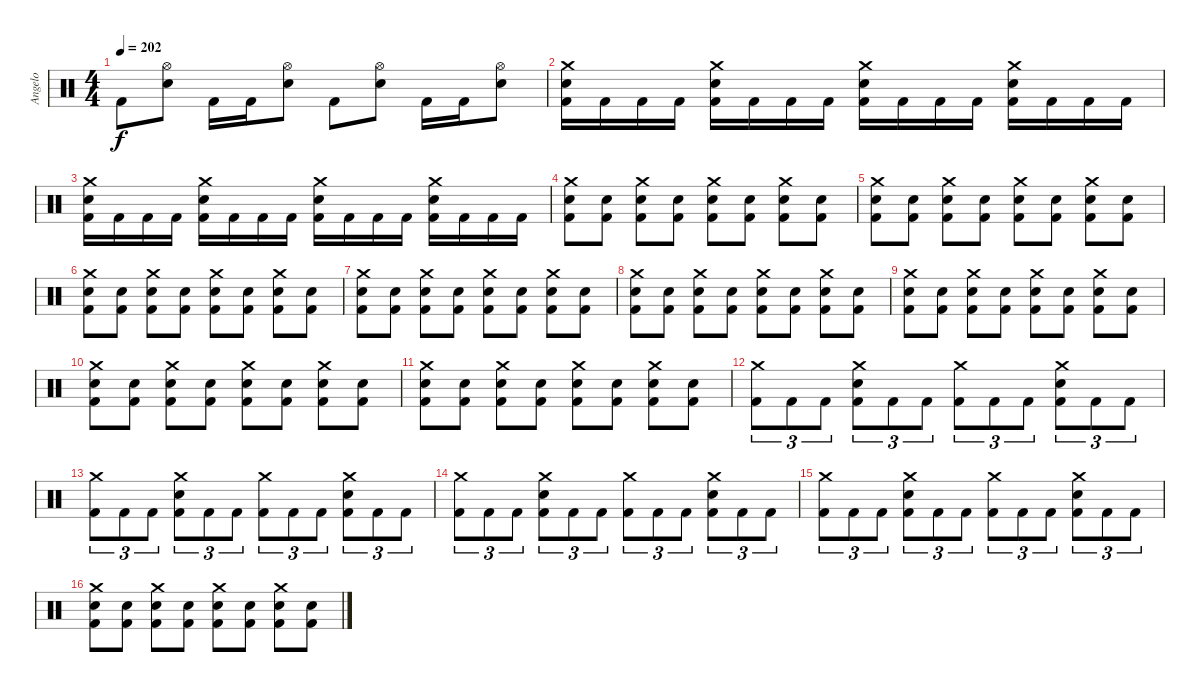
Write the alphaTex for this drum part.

\track ("Angelo" "Angelo") {instrument percussion}
\staff {score}
\articulation defaults
\ts (4 4)
\tempo 202
\clef neutral
\ks c "Kick (hit) 2".8{dy f}
("Hi-Hat (open)" "Electric Snare (hit)").8 "Kick (hit) 2".16 "Kick (hit) 2".16 ("Hi-Hat (open)" "Electric Snare (hit)").8 "Kick (hit) 2".8 ("Hi-Hat (open)" "Electric Snare (hit)").8 "Kick (hit) 2".16 "Kick (hit) 2".16 ("Hi-Hat (open)" "Electric Snare (hit)").8 |
("Crash medium (hit)" "Electric Snare (hit)" "Kick (hit) 2").16 "Kick (hit) 2".16 "Kick (hit) 2".16 "Kick (hit) 2".16 ("Crash medium (hit)" "Electric Snare (hit)" "Kick (hit) 2").16 "Kick (hit) 2".16 "Kick (hit) 2".16 "Kick (hit) 2".16 ("Crash medium (hit)" "Electric Snare (hit)" "Kick (hit) 2").16 "Kick (hit) 2".16 "Kick (hit) 2".16 "Kick (hit) 2".16 ("Crash medium (hit)" "Electric Snare (hit)" "Kick (hit) 2").16 "Kick (hit) 2".16 "Kick (hit) 2".16 "Kick (hit) 2".16 |
("Crash medium (hit)" "Electric Snare (hit)" "Kick (hit) 2").16 "Kick (hit) 2".16 "Kick (hit) 2".16 "Kick (hit) 2".16 ("Crash medium (hit)" "Electric Snare (hit)" "Kick (hit) 2").16 "Kick (hit) 2".16 "Kick (hit) 2".16 "Kick (hit) 2".16 ("Crash medium (hit)" "Electric Snare (hit)" "Kick (hit) 2").16 "Kick (hit) 2".16 "Kick (hit) 2".16 "Kick (hit) 2".16 ("Crash medium (hit)" "Electric Snare (hit)" "Kick (hit) 2").16 "Kick (hit) 2".16 "Kick (hit) 2".16 "Kick (hit) 2".16 |
("Crash medium (hit)" "Electric Snare (hit)" "Kick (hit) 2").8 ("Electric Snare (hit)" "Kick (hit) 2").8 ("Crash medium (hit)" "Electric Snare (hit)" "Kick (hit) 2").8 ("Electric Snare (hit)" "Kick (hit) 2").8 ("Crash medium (hit)" "Electric Snare (hit)" "Kick (hit) 2").8 ("Electric Snare (hit)" "Kick (hit) 2").8 ("Crash medium (hit)" "Electric Snare (hit)" "Kick (hit) 2").8 ("Electric Snare (hit)" "Kick (hit) 2").8 |
("Crash medium (hit)" "Electric Snare (hit)" "Kick (hit) 2").8 ("Electric Snare (hit)" "Kick (hit) 2").8 ("Crash medium (hit)" "Electric Snare (hit)" "Kick (hit) 2").8 ("Electric Snare (hit)" "Kick (hit) 2").8 ("Crash medium (hit)" "Electric Snare (hit)" "Kick (hit) 2").8 ("Electric Snare (hit)" "Kick (hit) 2").8 ("Crash medium (hit)" "Electric Snare (hit)" "Kick (hit) 2").8 ("Electric Snare (hit)" "Kick (hit) 2").8 |
("Crash medium (hit)" "Electric Snare (hit)" "Kick (hit) 2").8 ("Electric Snare (hit)" "Kick (hit) 2").8 ("Crash medium (hit)" "Electric Snare (hit)" "Kick (hit) 2").8 ("Electric Snare (hit)" "Kick (hit) 2").8 ("Crash medium (hit)" "Electric Snare (hit)" "Kick (hit) 2").8 ("Electric Snare (hit)" "Kick (hit) 2").8 ("Crash medium (hit)" "Electric Snare (hit)" "Kick (hit) 2").8 ("Electric Snare (hit)" "Kick (hit) 2").8 |
("Crash medium (hit)" "Electric Snare (hit)" "Kick (hit) 2").8 ("Electric Snare (hit)" "Kick (hit) 2").8 ("Crash medium (hit)" "Electric Snare (hit)" "Kick (hit) 2").8 ("Electric Snare (hit)" "Kick (hit) 2").8 ("Crash medium (hit)" "Electric Snare (hit)" "Kick (hit) 2").8 ("Electric Snare (hit)" "Kick (hit) 2").8 ("Crash medium (hit)" "Electric Snare (hit)" "Kick (hit) 2").8 ("Electric Snare (hit)" "Kick (hit) 2").8 |
("Crash medium (hit)" "Electric Snare (hit)" "Kick (hit) 2").8 ("Electric Snare (hit)" "Kick (hit) 2").8 ("Crash medium (hit)" "Electric Snare (hit)" "Kick (hit) 2").8 ("Electric Snare (hit)" "Kick (hit) 2").8 ("Crash medium (hit)" "Electric Snare (hit)" "Kick (hit) 2").8 ("Electric Snare (hit)" "Kick (hit) 2").8 ("Crash medium (hit)" "Electric Snare (hit)" "Kick (hit) 2").8 ("Electric Snare (hit)" "Kick (hit) 2").8 |
("Crash medium (hit)" "Electric Snare (hit)" "Kick (hit) 2").8 ("Electric Snare (hit)" "Kick (hit) 2").8 ("Crash medium (hit)" "Electric Snare (hit)" "Kick (hit) 2").8 ("Electric Snare (hit)" "Kick (hit) 2").8 ("Crash medium (hit)" "Electric Snare (hit)" "Kick (hit) 2").8 ("Electric Snare (hit)" "Kick (hit) 2").8 ("Crash medium (hit)" "Electric Snare (hit)" "Kick (hit) 2").8 ("Electric Snare (hit)" "Kick (hit) 2").8 |
("Crash medium (hit)" "Electric Snare (hit)" "Kick (hit) 2").8 ("Electric Snare (hit)" "Kick (hit) 2").8 ("Crash medium (hit)" "Electric Snare (hit)" "Kick (hit) 2").8 ("Electric Snare (hit)" "Kick (hit) 2").8 ("Crash medium (hit)" "Electric Snare (hit)" "Kick (hit) 2").8 ("Electric Snare (hit)" "Kick (hit) 2").8 ("Crash medium (hit)" "Electric Snare (hit)" "Kick (hit) 2").8 ("Electric Snare (hit)" "Kick (hit) 2").8 |
("Crash medium (hit)" "Electric Snare (hit)" "Kick (hit) 2").8 ("Electric Snare (hit)" "Kick (hit) 2").8 ("Crash medium (hit)" "Electric Snare (hit)" "Kick (hit) 2").8 ("Electric Snare (hit)" "Kick (hit) 2").8 ("Crash medium (hit)" "Electric Snare (hit)" "Kick (hit) 2").8 ("Electric Snare (hit)" "Kick (hit) 2").8 ("Crash medium (hit)" "Electric Snare (hit)" "Kick (hit) 2").8 ("Electric Snare (hit)" "Kick (hit) 2").8 |
("Crash medium (hit)" "Kick (hit) 2").8{tu (3 2)} "Kick (hit) 2".8{tu (3 2)} "Kick (hit) 2".8{tu (3 2)} ("Crash medium (hit)" "Electric Snare (hit)" "Kick (hit) 2").8{tu (3 2)} "Kick (hit) 2".8{tu (3 2)} "Kick (hit) 2".8{tu (3 2)} ("Crash medium (hit)" "Kick (hit) 2").8{tu (3 2)} "Kick (hit) 2".8{tu (3 2)} "Kick (hit) 2".8{tu (3 2)} ("Crash medium (hit)" "Electric Snare (hit)" "Kick (hit) 2").8{tu (3 2)} "Kick (hit) 2".8{tu (3 2)} "Kick (hit) 2".8{tu (3 2)} |
("Crash medium (hit)" "Kick (hit) 2").8{tu (3 2)} "Kick (hit) 2".8{tu (3 2)} "Kick (hit) 2".8{tu (3 2)} ("Crash medium (hit)" "Electric Snare (hit)" "Kick (hit) 2").8{tu (3 2)} "Kick (hit) 2".8{tu (3 2)} "Kick (hit) 2".8{tu (3 2)} ("Crash medium (hit)" "Kick (hit) 2").8{tu (3 2)} "Kick (hit) 2".8{tu (3 2)} "Kick (hit) 2".8{tu (3 2)} ("Crash medium (hit)" "Electric Snare (hit)" "Kick (hit) 2").8{tu (3 2)} "Kick (hit) 2".8{tu (3 2)} "Kick (hit) 2".8{tu (3 2)} |
("Crash medium (hit)" "Kick (hit) 2").8{tu (3 2)} "Kick (hit) 2".8{tu (3 2)} "Kick (hit) 2".8{tu (3 2)} ("Crash medium (hit)" "Electric Snare (hit)" "Kick (hit) 2").8{tu (3 2)} "Kick (hit) 2".8{tu (3 2)} "Kick (hit) 2".8{tu (3 2)} ("Crash medium (hit)" "Kick (hit) 2").8{tu (3 2)} "Kick (hit) 2".8{tu (3 2)} "Kick (hit) 2".8{tu (3 2)} ("Crash medium (hit)" "Electric Snare (hit)" "Kick (hit) 2").8{tu (3 2)} "Kick (hit) 2".8{tu (3 2)} "Kick (hit) 2".8{tu (3 2)} |
("Crash medium (hit)" "Kick (hit) 2").8{tu (3 2)} "Kick (hit) 2".8{tu (3 2)} "Kick (hit) 2".8{tu (3 2)} ("Crash medium (hit)" "Electric Snare (hit)" "Kick (hit) 2").8{tu (3 2)} "Kick (hit) 2".8{tu (3 2)} "Kick (hit) 2".8{tu (3 2)} ("Crash medium (hit)" "Kick (hit) 2").8{tu (3 2)} "Kick (hit) 2".8{tu (3 2)} "Kick (hit) 2".8{tu (3 2)} ("Crash medium (hit)" "Electric Snare (hit)" "Kick (hit) 2").8{tu (3 2)} "Kick (hit) 2".8{tu (3 2)} "Kick (hit) 2".8{tu (3 2)} |
("Crash medium (hit)" "Electric Snare (hit)" "Kick (hit) 2").8 ("Electric Snare (hit)" "Kick (hit) 2").8 ("Crash medium (hit)" "Electric Snare (hit)" "Kick (hit) 2").8 ("Electric Snare (hit)" "Kick (hit) 2").8 ("Crash medium (hit)" "Electric Snare (hit)" "Kick (hit) 2").8 ("Electric Snare (hit)" "Kick (hit) 2").8 ("Crash medium (hit)" "Electric Snare (hit)" "Kick (hit) 2").8 ("Electric Snare (hit)" "Kick (hit) 2").8
